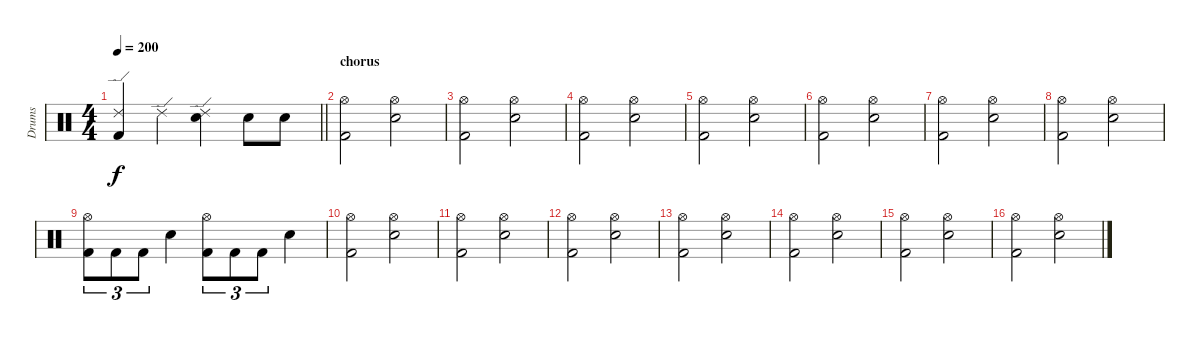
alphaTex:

\track ("Drums" "Drums") {instrument percussion}
\staff {score}
\articulation defaults
\ts (4 4)
\tempo 200
\clef neutral
\barLineRight lightlight
\ks c
("Ride (edge) 2" "Kick (hit) 2").4{dy f} "Ride (edge) 2".4 ("Ride (edge) 2" "Electric Snare (hit)").4 "Electric Snare (hit)".8 "Electric Snare (hit)".8 |
\section ("" "chorus")
("Hi-Hat (open)" "Kick (hit) 2").2 ("Hi-Hat (open)" "Electric Snare (hit)").2 |
("Hi-Hat (open)" "Kick (hit) 2").2 ("Hi-Hat (open)" "Electric Snare (hit)").2 |
("Hi-Hat (open)" "Kick (hit) 2").2 ("Hi-Hat (open)" "Electric Snare (hit)").2 |
("Hi-Hat (open)" "Kick (hit) 2").2 ("Hi-Hat (open)" "Electric Snare (hit)").2 |
("Hi-Hat (open)" "Kick (hit) 2").2 ("Hi-Hat (open)" "Electric Snare (hit)").2 |
("Hi-Hat (open)" "Kick (hit) 2").2 ("Hi-Hat (open)" "Electric Snare (hit)").2 |
("Hi-Hat (open)" "Kick (hit) 2").2 ("Hi-Hat (open)" "Electric Snare (hit)").2 |
("Hi-Hat (open)" "Kick (hit) 2").8{tu (3 2)} "Kick (hit) 2".8{tu (3 2)} "Kick (hit) 2".8{tu (3 2)} "Electric Snare (hit)".4 ("Hi-Hat (open)" "Kick (hit) 2").8{tu (3 2)} "Kick (hit) 2".8{tu (3 2)} "Kick (hit) 2".8{tu (3 2)} "Electric Snare (hit)".4 |
("Hi-Hat (open)" "Kick (hit) 2").2 ("Hi-Hat (open)" "Electric Snare (hit)").2 |
("Hi-Hat (open)" "Kick (hit) 2").2 ("Hi-Hat (open)" "Electric Snare (hit)").2 |
("Hi-Hat (open)" "Kick (hit) 2").2 ("Hi-Hat (open)" "Electric Snare (hit)").2 |
("Hi-Hat (open)" "Kick (hit) 2").2 ("Hi-Hat (open)" "Electric Snare (hit)").2 |
("Hi-Hat (open)" "Kick (hit) 2").2 ("Hi-Hat (open)" "Electric Snare (hit)").2 |
("Hi-Hat (open)" "Kick (hit) 2").2 ("Hi-Hat (open)" "Electric Snare (hit)").2 |
("Hi-Hat (open)" "Kick (hit) 2").2 ("Hi-Hat (open)" "Electric Snare (hit)").2
